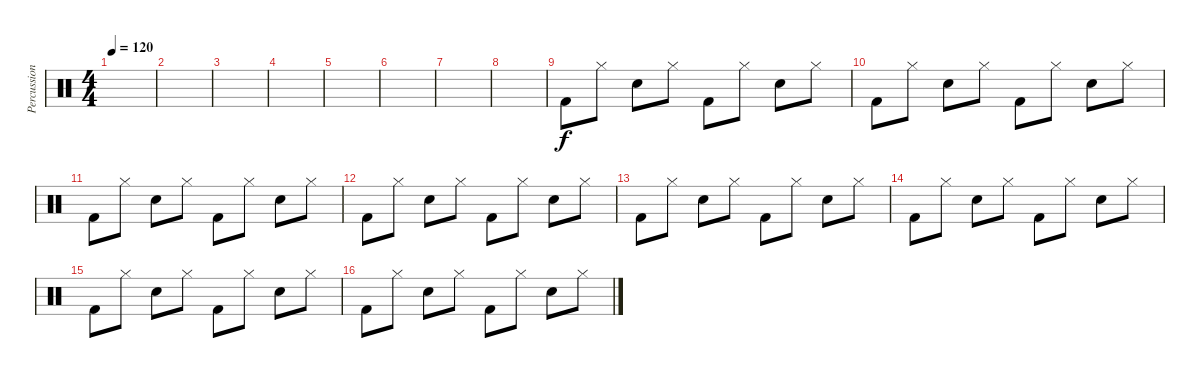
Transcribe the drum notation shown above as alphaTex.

\track ("Percussion" "Percussion") {instrument percussion}
\staff {score}
\articulation defaults
\ts (4 4)
\tempo 120
\clef neutral
\ks c
|
|
|
|
|
|
|
|
"Kick (hit) 2".8 "Hi-Hat (closed)".8 "Snare (hit) 2".8 "Hi-Hat (closed)".8 "Kick (hit) 2".8 "Hi-Hat (closed)".8 "Snare (hit) 2".8 "Hi-Hat (closed)".8 |
"Kick (hit) 2".8 "Hi-Hat (closed)".8 "Snare (hit) 2".8 "Hi-Hat (closed)".8 "Kick (hit) 2".8 "Hi-Hat (closed)".8 "Snare (hit) 2".8 "Hi-Hat (closed)".8 |
"Kick (hit) 2".8 "Hi-Hat (closed)".8 "Snare (hit) 2".8 "Hi-Hat (closed)".8 "Kick (hit) 2".8 "Hi-Hat (closed)".8 "Snare (hit) 2".8 "Hi-Hat (closed)".8 |
"Kick (hit) 2".8 "Hi-Hat (closed)".8 "Snare (hit) 2".8 "Hi-Hat (closed)".8 "Kick (hit) 2".8 "Hi-Hat (closed)".8 "Snare (hit) 2".8 "Hi-Hat (closed)".8 |
"Kick (hit) 2".8 "Hi-Hat (closed)".8 "Snare (hit) 2".8 "Hi-Hat (closed)".8 "Kick (hit) 2".8 "Hi-Hat (closed)".8 "Snare (hit) 2".8 "Hi-Hat (closed)".8 |
"Kick (hit) 2".8 "Hi-Hat (closed)".8 "Snare (hit) 2".8 "Hi-Hat (closed)".8 "Kick (hit) 2".8 "Hi-Hat (closed)".8 "Snare (hit) 2".8 "Hi-Hat (closed)".8 |
"Kick (hit) 2".8 "Hi-Hat (closed)".8 "Snare (hit) 2".8 "Hi-Hat (closed)".8 "Kick (hit) 2".8 "Hi-Hat (closed)".8 "Snare (hit) 2".8 "Hi-Hat (closed)".8 |
"Kick (hit) 2".8 "Hi-Hat (closed)".8 "Snare (hit) 2".8 "Hi-Hat (closed)".8 "Kick (hit) 2".8 "Hi-Hat (closed)".8 "Snare (hit) 2".8 "Hi-Hat (closed)".8
